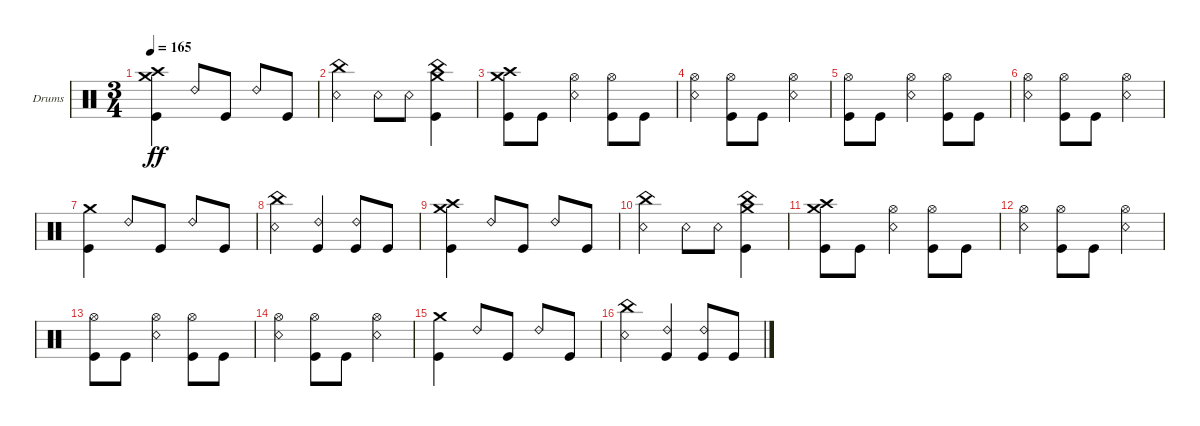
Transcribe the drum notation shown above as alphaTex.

\bracketExtendMode groupsimilarinstruments
\firstSystemTrackNameOrientation horizontal
\otherSystemsTrackNameOrientation horizontal
\track ("Kaleb - Drums" "Drums") {instrument percussion}
\staff {score}
\articulation defaults
\ts (3 4)
\tempo 165
\clef neutral
\ks c
("Kick (hit)" "Crash medium (hit)" "Crash high (hit)").4{dy ff} "Ride (bell) 2".8 "Kick (hit)".8 "Ride (bell) 2".8 "Kick (hit)".8 |
("Snare (rim shot)" "China (hit)").4 "Snare (rim shot)".8 "Snare (rim shot)".8 ("Kick (hit)" "Crash medium (hit)" "China (hit)").4 |
("Kick (hit)" "Crash medium (hit)" "Crash high (hit)").8 "Kick (hit)".8 ("Hi-Hat (open)" "Snare (rim shot)").4 ("Kick (hit)" "Hi-Hat (open)").8 "Kick (hit)".8 |
("Hi-Hat (open)" "Snare (rim shot)").4 ("Kick (hit)" "Hi-Hat (open)").8 "Kick (hit)".8 ("Hi-Hat (open)" "Snare (rim shot)").4 |
("Kick (hit)" "Hi-Hat (open)").8 "Kick (hit)".8 ("Hi-Hat (open)" "Snare (rim shot)").4 ("Kick (hit)" "Hi-Hat (open)").8 "Kick (hit)".8 |
("Hi-Hat (open)" "Snare (rim shot)").4 ("Kick (hit)" "Hi-Hat (open)").8 "Kick (hit)".8 ("Hi-Hat (open)" "Snare (rim shot)").4 |
("Kick (hit)" "Crash medium (hit)").4 "Ride (bell) 2".8 "Kick (hit)".8 "Ride (bell) 2".8 "Kick (hit)".8 |
("Snare (rim shot)" "China (hit)").4 ("Ride (bell) 2" "Kick (hit)").4 ("Ride (bell) 2" "Kick (hit)").8 "Kick (hit)".8 |
("Kick (hit)" "Crash medium (hit)" "Crash high (hit)").4 "Ride (bell) 2".8 "Kick (hit)".8 "Ride (bell) 2".8 "Kick (hit)".8 |
("Snare (rim shot)" "China (hit)").4 "Snare (rim shot)".8 "Snare (rim shot)".8 ("Kick (hit)" "Crash medium (hit)" "China (hit)").4 |
("Kick (hit)" "Crash medium (hit)" "Crash high (hit)").8 "Kick (hit)".8 ("Hi-Hat (open)" "Snare (rim shot)").4 ("Kick (hit)" "Hi-Hat (open)").8 "Kick (hit)".8 |
("Hi-Hat (open)" "Snare (rim shot)").4 ("Kick (hit)" "Hi-Hat (open)").8 "Kick (hit)".8 ("Hi-Hat (open)" "Snare (rim shot)").4 |
("Kick (hit)" "Hi-Hat (open)").8 "Kick (hit)".8 ("Hi-Hat (open)" "Snare (rim shot)").4 ("Kick (hit)" "Hi-Hat (open)").8 "Kick (hit)".8 |
("Hi-Hat (open)" "Snare (rim shot)").4 ("Kick (hit)" "Hi-Hat (open)").8 "Kick (hit)".8 ("Hi-Hat (open)" "Snare (rim shot)").4 |
("Kick (hit)" "Crash medium (hit)").4 "Ride (bell) 2".8 "Kick (hit)".8 "Ride (bell) 2".8 "Kick (hit)".8 |
("Snare (rim shot)" "China (hit)").4 ("Ride (bell) 2" "Kick (hit)").4 ("Ride (bell) 2" "Kick (hit)").8 "Kick (hit)".8
